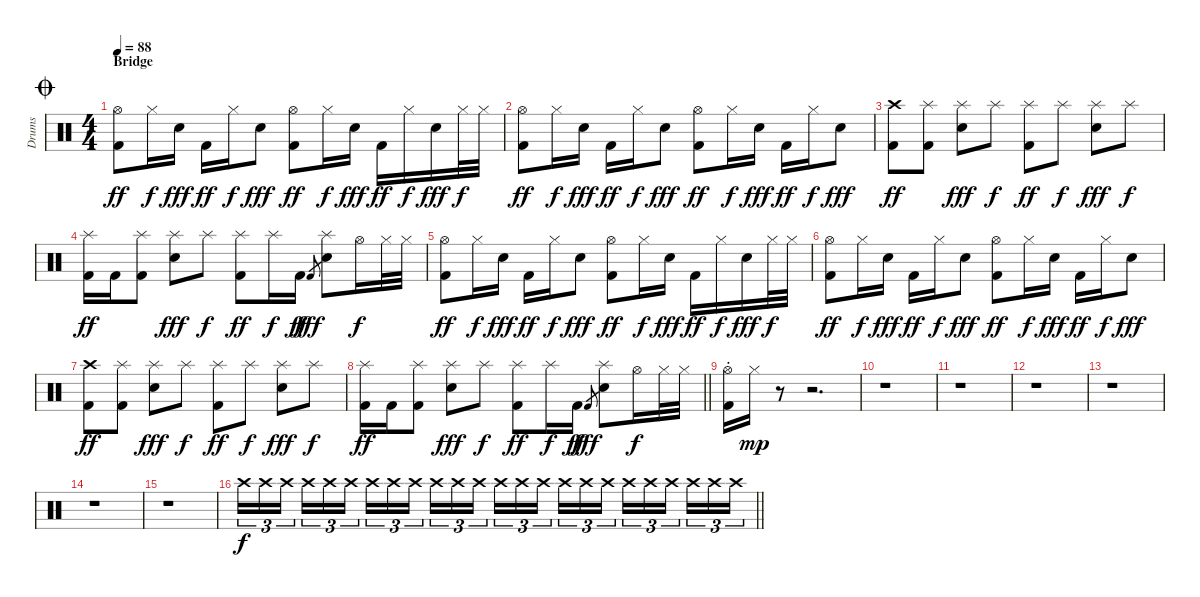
\track ("Drums" "Drums") {instrument percussion}
\staff {score}
\articulation defaults
\ts (4 4)
\section ("" "Bridge")
\jump coda
\tempo 88
\clef neutral
\ks c
("Hi-Hat (open)" "Kick (hit) 2").8{dy ff} "Hi-Hat (closed)".16{dy f} "Snare (hit) 2".16{dy fff} "Kick (hit) 2".16{dy ff} "Hi-Hat (closed)".16{dy f} "Snare (hit) 2".8{dy fff} ("Hi-Hat (open)" "Kick (hit) 2").8{dy ff} "Hi-Hat (closed)".16{dy f} "Snare (hit) 2".16{dy fff} "Kick (hit) 2".16{dy ff} "Hi-Hat (closed)".16{dy f} "Snare (hit) 2".16{dy fff} "Hi-Hat (closed)".32{dy f} "Hi-Hat (closed)".32 |
("Hi-Hat (open)" "Kick (hit) 2").8{dy ff} "Hi-Hat (closed)".16{dy f} "Snare (hit) 2".16{dy fff} "Kick (hit) 2".16{dy ff} "Hi-Hat (closed)".16{dy f} "Snare (hit) 2".8{dy fff} ("Hi-Hat (open)" "Kick (hit) 2").8{dy ff} "Hi-Hat (closed)".16{dy f} "Snare (hit) 2".16{dy fff} "Kick (hit) 2".16{dy ff} "Hi-Hat (closed)".16{dy f} "Snare (hit) 2".8{dy fff} |
("Crash high (hit)" "Kick (hit) 2").8{dy ff} ("Splash (hit)" "Kick (hit) 2").8 ("Splash (hit)" "Snare (hit) 2").8{dy fff} "Splash (hit)".8{dy f} ("Splash (hit)" "Kick (hit) 2").8{dy ff} "Splash (hit)".8{dy f} ("Splash (hit)" "Snare (hit) 2").8{dy fff} "Splash (hit)".8{dy f} |
("Splash (hit)" "Kick (hit) 2").16{dy ff} "Kick (hit) 2".16 ("Splash (hit)" "Kick (hit) 2").8 ("Splash (hit)" "Snare (hit) 2").8{dy fff} "Splash (hit)".8{dy f} ("Splash (hit)" "Kick (hit) 2").8{dy ff} "Splash (hit)".16{dy f} "Kick (hit) 2".16{dy ff} "Kick (hit) 2".8{gr dy fff} ("Splash (hit)" "Snare (hit) 2").8 "Hi-Hat (open)".16{dy f} "Hi-Hat (closed)".32 "Hi-Hat (closed)".32 |
("Hi-Hat (open)" "Kick (hit) 2").8{dy ff} "Hi-Hat (closed)".16{dy f} "Snare (hit) 2".16{dy fff} "Kick (hit) 2".16{dy ff} "Hi-Hat (closed)".16{dy f} "Snare (hit) 2".8{dy fff} ("Hi-Hat (open)" "Kick (hit) 2").8{dy ff} "Hi-Hat (closed)".16{dy f} "Snare (hit) 2".16{dy fff} "Kick (hit) 2".16{dy ff} "Hi-Hat (closed)".16{dy f} "Snare (hit) 2".16{dy fff} "Hi-Hat (closed)".32{dy f} "Hi-Hat (closed)".32 |
("Hi-Hat (open)" "Kick (hit) 2").8{dy ff} "Hi-Hat (closed)".16{dy f} "Snare (hit) 2".16{dy fff} "Kick (hit) 2".16{dy ff} "Hi-Hat (closed)".16{dy f} "Snare (hit) 2".8{dy fff} ("Hi-Hat (open)" "Kick (hit) 2").8{dy ff} "Hi-Hat (closed)".16{dy f} "Snare (hit) 2".16{dy fff} "Kick (hit) 2".16{dy ff} "Hi-Hat (closed)".16{dy f} "Snare (hit) 2".8{dy fff} |
("Crash high (hit)" "Kick (hit) 2").8{dy ff} ("Splash (hit)" "Kick (hit) 2").8 ("Splash (hit)" "Snare (hit) 2").8{dy fff} "Splash (hit)".8{dy f} ("Splash (hit)" "Kick (hit) 2").8{dy ff} "Splash (hit)".8{dy f} ("Splash (hit)" "Snare (hit) 2").8{dy fff} "Splash (hit)".8{dy f} |
\barLineRight lightlight
("Splash (hit)" "Kick (hit) 2").16{dy ff} "Kick (hit) 2".16 ("Splash (hit)" "Kick (hit) 2").8 ("Splash (hit)" "Snare (hit) 2").8{dy fff} "Splash (hit)".8{dy f} ("Splash (hit)" "Kick (hit) 2").8{dy ff} "Splash (hit)".16{dy f} "Kick (hit) 2".16{dy ff} "Kick (hit) 2".8{gr dy fff} ("Splash (hit)" "Snare (hit) 2").8 "Hi-Hat (open)".16{dy f} "Hi-Hat (closed)".32 "Hi-Hat (closed)".32 |
("Hi-Hat (open)"{st} "Kick (hit) 2").16 "Hi-Hat (closed)".16{dy mp} r.8 r.2{d} |
r.1 |
r.1 |
r.1 |
r.1 |
r.1 |
r.1{volume 2} |
\barLineRight lightlight "Crash high (hit)".16{tu (3 2) dy f} "Crash high (hit)".16{tu (3 2) volume 12} "Crash high (hit)".16{tu (3 2) beam splitsecondary} "Crash high (hit)".16{tu (3 2)} "Crash high (hit)".16{tu (3 2)} "Crash high (hit)".16{tu (3 2)} "Crash high (hit)".16{tu (3 2)} "Crash high (hit)".16{tu (3 2)} "Crash high (hit)".16{tu (3 2) beam splitsecondary} "Crash high (hit)".16{tu (3 2)} "Crash high (hit)".16{tu (3 2)} "Crash high (hit)".16{tu (3 2)} "Crash high (hit)".16{tu (3 2)} "Crash high (hit)".16{tu (3 2)} "Crash high (hit)".16{tu (3 2) beam splitsecondary} "Crash high (hit)".16{tu (3 2)} "Crash high (hit)".16{tu (3 2)} "Crash high (hit)".16{tu (3 2)} "Crash high (hit)".16{tu (3 2)} "Crash high (hit)".16{tu (3 2)} "Crash high (hit)".16{tu (3 2) beam splitsecondary} "Crash high (hit)".16{tu (3 2)} "Crash high (hit)".16{tu (3 2)} "Crash high (hit)".16{tu (3 2)}
